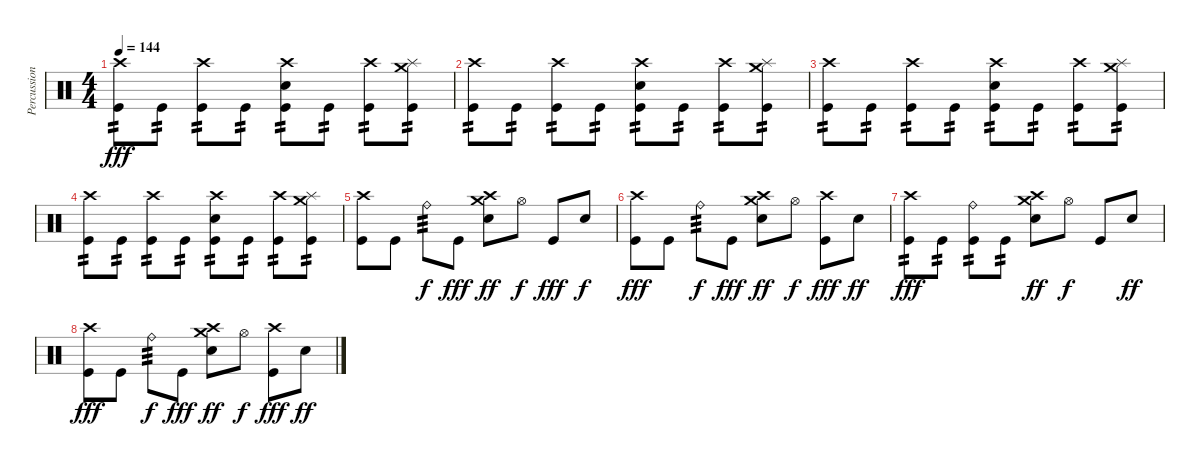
\track ("Percussion" "Percussion") {instrument percussion}
\staff {score}
\articulation defaults
\ts (4 4)
\tempo 144
\clef neutral
\ks c
("Crash high (hit)" "Kick (hit)").8{tp 2 dy fff} "Kick (hit)".8{tp 2} ("Crash high (hit)" "Kick (hit)").8{tp 2} "Kick (hit)".8{tp 2} ("Crash high (hit)" "Electric Snare (hit)" "Kick (hit)").8{tp 2} "Kick (hit)".8{tp 2} ("Crash high (hit)" "Kick (hit)").8{tp 2} ("Splash (hit)" "Crash medium (hit)" "Kick (hit)").8{tp 2} |
("Crash high (hit)" "Kick (hit)").8{tp 2} "Kick (hit)".8{tp 2} ("Crash high (hit)" "Kick (hit)").8{tp 2} "Kick (hit)".8{tp 2} ("Crash high (hit)" "Electric Snare (hit)" "Kick (hit)").8{tp 2} "Kick (hit)".8{tp 2} ("Crash high (hit)" "Kick (hit)").8{tp 2} ("Splash (hit)" "Crash medium (hit)" "Kick (hit)").8{tp 2} |
("Crash high (hit)" "Kick (hit)").8{tp 2} "Kick (hit)".8{tp 2} ("Crash high (hit)" "Kick (hit)").8{tp 2} "Kick (hit)".8{tp 2} ("Crash high (hit)" "Electric Snare (hit)" "Kick (hit)").8{tp 2} "Kick (hit)".8{tp 2} ("Crash high (hit)" "Kick (hit)").8{tp 2} ("Splash (hit)" "Crash medium (hit)" "Kick (hit)").8{tp 2} |
("Crash high (hit)" "Kick (hit)").8{tp 2} "Kick (hit)".8{tp 2} ("Crash high (hit)" "Kick (hit)").8{tp 2} "Kick (hit)".8{tp 2} ("Crash high (hit)" "Electric Snare (hit)" "Kick (hit)").8{tp 2} "Kick (hit)".8{tp 2} ("Crash high (hit)" "Kick (hit)").8{tp 2} ("Splash (hit)" "Crash medium (hit)" "Kick (hit)").8{tp 2} |
("Crash high (hit)" "Kick (hit)").8 "Kick (hit)".8 "Ride (bell)".8{tp 3 dy f} "Kick (hit)".8{dy fff} ("Crash medium (hit)" "Crash high (hit)" "Electric Snare (hit)").8{dy ff} "Hi-Hat (open)".8{dy f} "Kick (hit)".8{dy fff} "Electric Snare (hit)".8{dy f} |
("Crash high (hit)" "Kick (hit)").8{dy fff} "Kick (hit)".8 "Ride (bell)".8{tp 3 dy f} "Kick (hit)".8{dy fff} ("Crash medium (hit)" "Crash high (hit)" "Electric Snare (hit)").8{dy ff} "Hi-Hat (open)".8{dy f} ("Crash high (hit)" "Kick (hit)").8{dy fff} "Electric Snare (hit)".8{dy ff} |
("Crash high (hit)" "Kick (hit)").8{tp 2 dy fff} "Kick (hit)".8{tp 2} ("Ride (bell)" "Kick (hit)").8{tp 2} "Kick (hit)".8{tp 2} ("Crash medium (hit)" "Crash high (hit)" "Electric Snare (hit)").8{dy ff} "Hi-Hat (open)".8{dy f} "Kick (hit)".8 "Electric Snare (hit)".8{dy ff} |
("Crash high (hit)" "Kick (hit)").8{dy fff} "Kick (hit)".8 "Ride (bell)".8{tp 3 dy f} "Kick (hit)".8{dy fff} ("Crash medium (hit)" "Crash high (hit)" "Electric Snare (hit)").8{dy ff} "Hi-Hat (open)".8{dy f} ("Crash high (hit)" "Kick (hit)").8{dy fff} "Electric Snare (hit)".8{dy ff}
